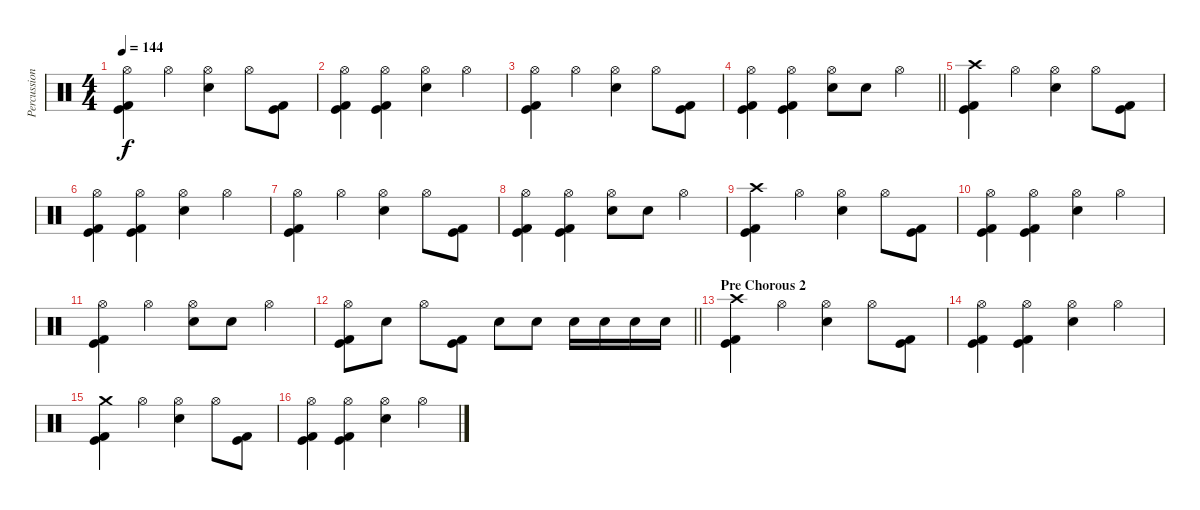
\track ("Percussion" "Percussion") {instrument percussion}
\staff {score}
\articulation defaults
\ts (4 4)
\tempo 144
\clef neutral
\ks c
("Hi-Hat (open)" "Kick (hit)" "Kick (hit) 2").4{dy f} "Hi-Hat (open)".4 ("Hi-Hat (open)" "Electric Snare (hit)").4 "Hi-Hat (open)".8 ("Kick (hit)" "Kick (hit) 2").8 |
("Hi-Hat (open)" "Kick (hit)" "Kick (hit) 2").4 ("Hi-Hat (open)" "Kick (hit)" "Kick (hit) 2").4 ("Hi-Hat (open)" "Electric Snare (hit)").4 "Hi-Hat (open)".4 |
("Hi-Hat (open)" "Kick (hit)" "Kick (hit) 2").4 "Hi-Hat (open)".4 ("Hi-Hat (open)" "Electric Snare (hit)").4 "Hi-Hat (open)".8 ("Kick (hit)" "Kick (hit) 2").8 |
\barLineRight lightlight
("Hi-Hat (open)" "Kick (hit)" "Kick (hit) 2").4 ("Hi-Hat (open)" "Kick (hit)" "Kick (hit) 2").4 ("Hi-Hat (open)" "Electric Snare (hit)").8 "Electric Snare (hit)".8 "Hi-Hat (open)".4 |
\section ("" "")
("Crash high (hit)" "Kick (hit)" "Kick (hit) 2").4 "Hi-Hat (open)".4 ("Hi-Hat (open)" "Electric Snare (hit)").4 "Hi-Hat (open)".8 ("Kick (hit)" "Kick (hit) 2").8 |
("Hi-Hat (open)" "Kick (hit)" "Kick (hit) 2").4 ("Hi-Hat (open)" "Kick (hit)" "Kick (hit) 2").4 ("Hi-Hat (open)" "Electric Snare (hit)").4 "Hi-Hat (open)".4 |
("Hi-Hat (open)" "Kick (hit)" "Kick (hit) 2").4 "Hi-Hat (open)".4 ("Hi-Hat (open)" "Electric Snare (hit)").4 "Hi-Hat (open)".8 ("Kick (hit)" "Kick (hit) 2").8 |
("Hi-Hat (open)" "Kick (hit)" "Kick (hit) 2").4 ("Hi-Hat (open)" "Kick (hit)" "Kick (hit) 2").4 ("Hi-Hat (open)" "Electric Snare (hit)").8 "Electric Snare (hit)".8 "Hi-Hat (open)".4 |
("Crash high (hit)" "Kick (hit)" "Kick (hit) 2").4 "Hi-Hat (open)".4 ("Hi-Hat (open)" "Electric Snare (hit)").4 "Hi-Hat (open)".8 ("Kick (hit)" "Kick (hit) 2").8 |
("Hi-Hat (open)" "Kick (hit)" "Kick (hit) 2").4 ("Hi-Hat (open)" "Kick (hit)" "Kick (hit) 2").4 ("Hi-Hat (open)" "Electric Snare (hit)").4 "Hi-Hat (open)".4 |
("Hi-Hat (open)" "Kick (hit)" "Kick (hit) 2").4 "Hi-Hat (open)".4 ("Hi-Hat (open)" "Electric Snare (hit)").8 "Electric Snare (hit)".8 "Hi-Hat (open)".4 |
\barLineRight lightlight
("Hi-Hat (open)" "Kick (hit)" "Kick (hit) 2").8 "Electric Snare (hit)".8 "Hi-Hat (open)".8 ("Kick (hit)" "Kick (hit) 2").8 "Electric Snare (hit)".8 "Electric Snare (hit)".8 "Electric Snare (hit)".16 "Electric Snare (hit)".16 "Electric Snare (hit)".16 "Electric Snare (hit)".16 |
\section ("" "Pre Chorous 2")
("Crash high (hit)" "Kick (hit)" "Kick (hit) 2").4 "Hi-Hat (open)".4 ("Hi-Hat (open)" "Electric Snare (hit)").4 "Hi-Hat (open)".8 ("Kick (hit)" "Kick (hit) 2").8 |
("Hi-Hat (open)" "Kick (hit)" "Kick (hit) 2").4 ("Hi-Hat (open)" "Kick (hit)" "Kick (hit) 2").4 ("Hi-Hat (open)" "Electric Snare (hit)").4 "Hi-Hat (open)".4 |
("Crash medium (hit)" "Kick (hit)" "Kick (hit) 2").4 "Hi-Hat (open)".4 ("Hi-Hat (open)" "Electric Snare (hit)").4 "Hi-Hat (open)".8 ("Kick (hit)" "Kick (hit) 2").8 |
("Hi-Hat (open)" "Kick (hit)" "Kick (hit) 2").4 ("Hi-Hat (open)" "Kick (hit)" "Kick (hit) 2").4 ("Hi-Hat (open)" "Electric Snare (hit)").4 "Hi-Hat (open)".4
